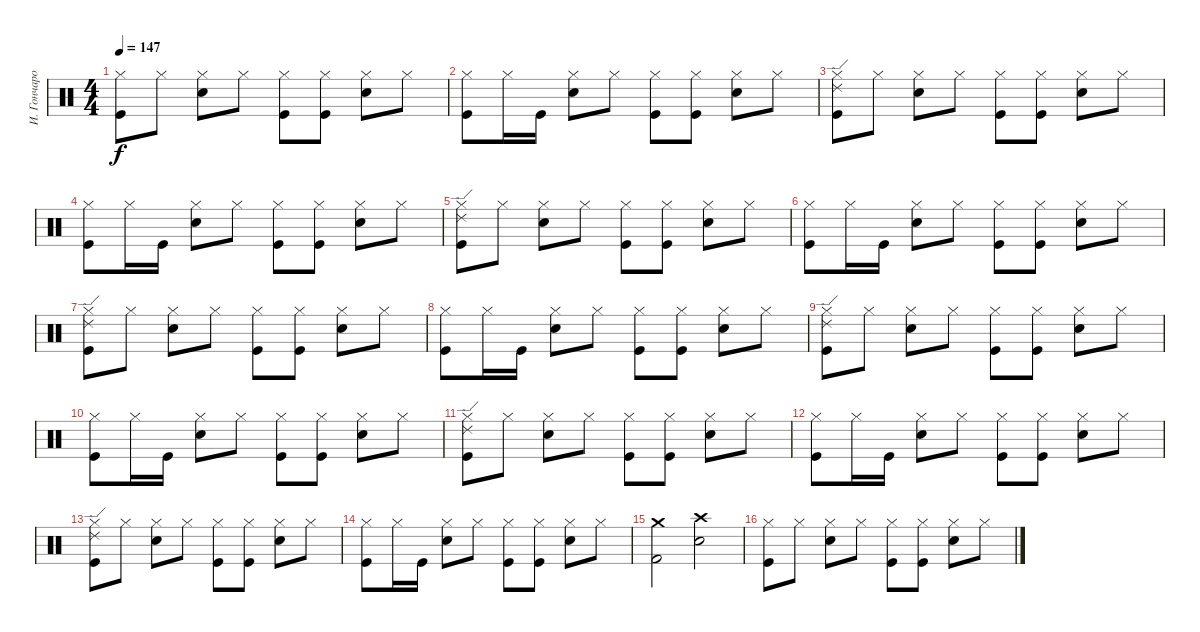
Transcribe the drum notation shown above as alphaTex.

\track ("И. Гончаров" "И. Гончаро") {instrument percussion}
\staff {score}
\articulation defaults
\ts (4 4)
\tempo 147
\clef neutral
\ks c
("Hi-Hat (closed)" "Kick (hit)").8{dy f} "Hi-Hat (closed)".8 ("Hi-Hat (closed)" "Snare (hit) 2").8 "Hi-Hat (closed)".8 ("Hi-Hat (closed)" "Kick (hit)").8 ("Hi-Hat (closed)" "Kick (hit)").8 ("Hi-Hat (closed)" "Snare (hit) 2").8 "Hi-Hat (closed)".8 |
("Hi-Hat (closed)" "Kick (hit)").8 "Hi-Hat (closed)".16 "Kick (hit)".16 ("Hi-Hat (closed)" "Snare (hit) 2").8 "Hi-Hat (closed)".8 ("Hi-Hat (closed)" "Kick (hit)").8 ("Hi-Hat (closed)" "Kick (hit)").8 ("Hi-Hat (closed)" "Snare (hit) 2").8 "Hi-Hat (closed)".8 |
("Ride (edge) 2" "Hi-Hat (closed)" "Kick (hit)").8 "Hi-Hat (closed)".8 ("Hi-Hat (closed)" "Snare (hit) 2").8 "Hi-Hat (closed)".8 ("Hi-Hat (closed)" "Kick (hit)").8 ("Hi-Hat (closed)" "Kick (hit)").8 ("Hi-Hat (closed)" "Snare (hit) 2").8 "Hi-Hat (closed)".8 |
("Hi-Hat (closed)" "Kick (hit)").8 "Hi-Hat (closed)".16 "Kick (hit)".16 ("Hi-Hat (closed)" "Snare (hit) 2").8 "Hi-Hat (closed)".8 ("Hi-Hat (closed)" "Kick (hit)").8 ("Hi-Hat (closed)" "Kick (hit)").8 ("Hi-Hat (closed)" "Snare (hit) 2").8 "Hi-Hat (closed)".8 |
("Ride (edge) 2" "Hi-Hat (closed)" "Kick (hit)").8 "Hi-Hat (closed)".8 ("Hi-Hat (closed)" "Snare (hit) 2").8 "Hi-Hat (closed)".8 ("Hi-Hat (closed)" "Kick (hit)").8 ("Hi-Hat (closed)" "Kick (hit)").8 ("Hi-Hat (closed)" "Snare (hit) 2").8 "Hi-Hat (closed)".8 |
("Hi-Hat (closed)" "Kick (hit)").8 "Hi-Hat (closed)".16 "Kick (hit)".16 ("Hi-Hat (closed)" "Snare (hit) 2").8 "Hi-Hat (closed)".8 ("Hi-Hat (closed)" "Kick (hit)").8 ("Hi-Hat (closed)" "Kick (hit)").8 ("Hi-Hat (closed)" "Snare (hit) 2").8 "Hi-Hat (closed)".8 |
("Ride (edge) 2" "Hi-Hat (closed)" "Kick (hit)").8 "Hi-Hat (closed)".8 ("Hi-Hat (closed)" "Snare (hit) 2").8 "Hi-Hat (closed)".8 ("Hi-Hat (closed)" "Kick (hit)").8 ("Hi-Hat (closed)" "Kick (hit)").8 ("Hi-Hat (closed)" "Snare (hit) 2").8 "Hi-Hat (closed)".8 |
("Hi-Hat (closed)" "Kick (hit)").8 "Hi-Hat (closed)".16 "Kick (hit)".16 ("Hi-Hat (closed)" "Snare (hit) 2").8 "Hi-Hat (closed)".8 ("Hi-Hat (closed)" "Kick (hit)").8 ("Hi-Hat (closed)" "Kick (hit)").8 ("Hi-Hat (closed)" "Snare (hit) 2").8 "Hi-Hat (closed)".8 |
("Ride (edge) 2" "Hi-Hat (closed)" "Kick (hit)").8 "Hi-Hat (closed)".8 ("Hi-Hat (closed)" "Snare (hit) 2").8 "Hi-Hat (closed)".8 ("Hi-Hat (closed)" "Kick (hit)").8 ("Hi-Hat (closed)" "Kick (hit)").8 ("Hi-Hat (closed)" "Snare (hit) 2").8 "Hi-Hat (closed)".8 |
("Hi-Hat (closed)" "Kick (hit)").8 "Hi-Hat (closed)".16 "Kick (hit)".16 ("Hi-Hat (closed)" "Snare (hit) 2").8 "Hi-Hat (closed)".8 ("Hi-Hat (closed)" "Kick (hit)").8 ("Hi-Hat (closed)" "Kick (hit)").8 ("Hi-Hat (closed)" "Snare (hit) 2").8 "Hi-Hat (closed)".8 |
("Ride (edge) 2" "Hi-Hat (closed)" "Kick (hit)").8 "Hi-Hat (closed)".8 ("Hi-Hat (closed)" "Snare (hit) 2").8 "Hi-Hat (closed)".8 ("Hi-Hat (closed)" "Kick (hit)").8 ("Hi-Hat (closed)" "Kick (hit)").8 ("Hi-Hat (closed)" "Snare (hit) 2").8 "Hi-Hat (closed)".8 |
("Hi-Hat (closed)" "Kick (hit)").8 "Hi-Hat (closed)".16 "Kick (hit)".16 ("Hi-Hat (closed)" "Snare (hit) 2").8 "Hi-Hat (closed)".8 ("Hi-Hat (closed)" "Kick (hit)").8 ("Hi-Hat (closed)" "Kick (hit)").8 ("Hi-Hat (closed)" "Snare (hit) 2").8 "Hi-Hat (closed)".8 |
("Ride (edge) 2" "Hi-Hat (closed)" "Kick (hit)").8 "Hi-Hat (closed)".8 ("Hi-Hat (closed)" "Snare (hit) 2").8 "Hi-Hat (closed)".8 ("Hi-Hat (closed)" "Kick (hit)").8 ("Hi-Hat (closed)" "Kick (hit)").8 ("Hi-Hat (closed)" "Snare (hit) 2").8 "Hi-Hat (closed)".8 |
("Hi-Hat (closed)" "Kick (hit)").8 "Hi-Hat (closed)".16 "Kick (hit)".16 ("Hi-Hat (closed)" "Snare (hit) 2").8 "Hi-Hat (closed)".8 ("Hi-Hat (closed)" "Kick (hit)").8 ("Hi-Hat (closed)" "Kick (hit)").8 ("Hi-Hat (closed)" "Snare (hit) 2").8 "Hi-Hat (closed)".8 |
("Crash medium (hit)" "Kick (hit) 2").2 ("Crash high (hit)" "Snare (hit) 2").2 |
("Hi-Hat (closed)" "Kick (hit)").8 "Hi-Hat (closed)".8 ("Hi-Hat (closed)" "Snare (hit) 2").8 "Hi-Hat (closed)".8 ("Hi-Hat (closed)" "Kick (hit)").8 ("Hi-Hat (closed)" "Kick (hit)").8 ("Hi-Hat (closed)" "Snare (hit) 2").8 "Hi-Hat (closed)".8
